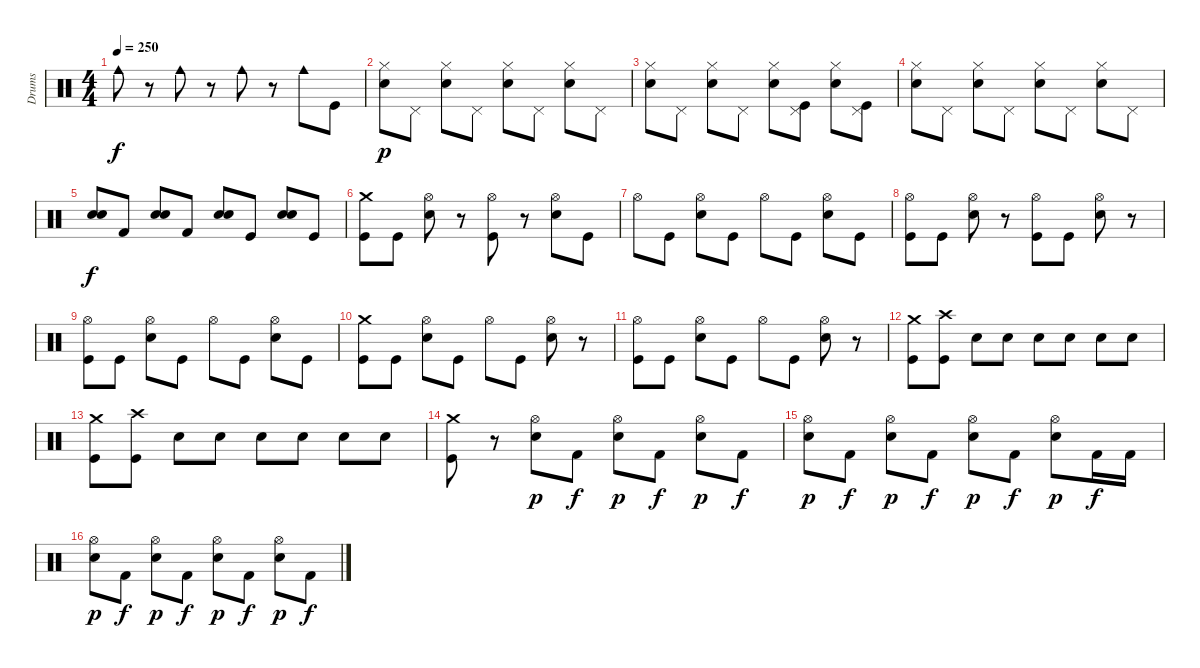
\track ("Drums" "Drums") {instrument percussion}
\staff {score}
\articulation defaults
\ts (4 4)
\tempo 250
\clef neutral
\ks c "Cowbell medium (hit)".8{dy f}
r.8 "Cowbell medium (hit)".8 r.8 "Cowbell medium (hit)".8 r.8 "Cowbell medium (hit)".8 "Kick (hit)".8 |
("Hi-Hat (closed)" "Electric Snare (hit)").8{dy p} "Pedal Hi-Hat (hit)".8 ("Hi-Hat (closed)" "Electric Snare (hit)").8 "Pedal Hi-Hat (hit)".8 ("Hi-Hat (closed)" "Electric Snare (hit)").8 "Pedal Hi-Hat (hit)".8 ("Hi-Hat (closed)" "Electric Snare (hit)").8 "Pedal Hi-Hat (hit)".8 |
("Hi-Hat (closed)" "Electric Snare (hit)").8 "Pedal Hi-Hat (hit)".8 ("Hi-Hat (closed)" "Electric Snare (hit)").8 "Pedal Hi-Hat (hit)".8 ("Hi-Hat (closed)" "Electric Snare (hit)").8 ("Pedal Hi-Hat (hit)" "Kick (hit)").8 ("Hi-Hat (closed)" "Electric Snare (hit)").8 ("Pedal Hi-Hat (hit)" "Kick (hit)").8 |
("Hi-Hat (closed)" "Electric Snare (hit)").8 "Pedal Hi-Hat (hit)".8 ("Hi-Hat (closed)" "Electric Snare (hit)").8 "Pedal Hi-Hat (hit)".8 ("Hi-Hat (closed)" "Electric Snare (hit)").8 "Pedal Hi-Hat (hit)".8 ("Hi-Hat (closed)" "Electric Snare (hit)").8 "Pedal Hi-Hat (hit)".8 |
("Electric Snare (hit)" "Electric Snare (hit)").8{bu 120 dy f} "Kick (hit) 2".8 ("Electric Snare (hit)" "Electric Snare (hit)").8{bu 120} "Kick (hit) 2".8 ("Electric Snare (hit)" "Electric Snare (hit)").8{bu 120} "Kick (hit)".8 ("Electric Snare (hit)" "Electric Snare (hit)").8{bu 120} "Kick (hit)".8 |
("Crash medium (hit)" "Kick (hit)").8 "Kick (hit)".8 ("Hi-Hat (open)" "Electric Snare (hit)").8 r.8 ("Hi-Hat (open)" "Kick (hit)").8 r.8 ("Hi-Hat (open)" "Electric Snare (hit)").8 "Kick (hit)".8 |
"Hi-Hat (open)".8 "Kick (hit)".8 ("Hi-Hat (open)" "Electric Snare (hit)").8 "Kick (hit)".8 "Hi-Hat (open)".8 "Kick (hit)".8 ("Hi-Hat (open)" "Electric Snare (hit)").8 "Kick (hit)".8 |
("Hi-Hat (open)" "Kick (hit)").8 "Kick (hit)".8 ("Hi-Hat (open)" "Electric Snare (hit)").8 r.8 ("Hi-Hat (open)" "Kick (hit)").8 "Kick (hit)".8 ("Hi-Hat (open)" "Electric Snare (hit)").8 r.8 |
("Hi-Hat (open)" "Kick (hit)").8 "Kick (hit)".8 ("Hi-Hat (open)" "Electric Snare (hit)").8 "Kick (hit)".8 "Hi-Hat (open)".8 "Kick (hit)".8 ("Hi-Hat (open)" "Electric Snare (hit)").8 "Kick (hit)".8 |
("Crash medium (hit)" "Kick (hit)").8 "Kick (hit)".8 ("Hi-Hat (open)" "Electric Snare (hit)").8 "Kick (hit)".8 "Hi-Hat (open)".8 "Kick (hit)".8 ("Hi-Hat (open)" "Electric Snare (hit)").8 r.8 |
("Hi-Hat (open)" "Kick (hit)").8 "Kick (hit)".8 ("Hi-Hat (open)" "Electric Snare (hit)").8 "Kick (hit)".8 "Hi-Hat (open)".8 "Kick (hit)".8 ("Hi-Hat (open)" "Electric Snare (hit)").8 r.8 |
("Crash medium (hit)" "Kick (hit)").8 ("Crash high (hit)" "Kick (hit)").8 "Electric Snare (hit)".8 "Electric Snare (hit)".8 "Electric Snare (hit)".8 "Electric Snare (hit)".8 "Electric Snare (hit)".8 "Electric Snare (hit)".8 |
("Crash medium (hit)" "Kick (hit)").8 ("Crash high (hit)" "Kick (hit)").8 "Electric Snare (hit)".8 "Electric Snare (hit)".8 "Electric Snare (hit)".8 "Electric Snare (hit)".8 "Electric Snare (hit)".8 "Electric Snare (hit)".8 |
("Crash medium (hit)" "Kick (hit)").8 r.8 ("Hi-Hat (open)" "Electric Snare (hit)").8{dy p} "Kick (hit) 2".8{dy f} ("Hi-Hat (open)" "Electric Snare (hit)").8{dy p} "Kick (hit) 2".8{dy f} ("Hi-Hat (open)" "Electric Snare (hit)").8{dy p} "Kick (hit) 2".8{dy f} |
("Hi-Hat (open)" "Electric Snare (hit)").8{dy p} "Kick (hit) 2".8{dy f} ("Hi-Hat (open)" "Electric Snare (hit)").8{dy p} "Kick (hit) 2".8{dy f} ("Hi-Hat (open)" "Electric Snare (hit)").8{dy p} "Kick (hit) 2".8{dy f} ("Hi-Hat (open)" "Electric Snare (hit)").8{dy p} "Kick (hit) 2".16{dy f} "Kick (hit) 2".16 |
("Hi-Hat (open)" "Electric Snare (hit)").8{dy p} "Kick (hit) 2".8{dy f} ("Hi-Hat (open)" "Electric Snare (hit)").8{dy p} "Kick (hit) 2".8{dy f} ("Hi-Hat (open)" "Electric Snare (hit)").8{dy p} "Kick (hit) 2".8{dy f} ("Hi-Hat (open)" "Electric Snare (hit)").8{dy p} "Kick (hit) 2".8{dy f}
